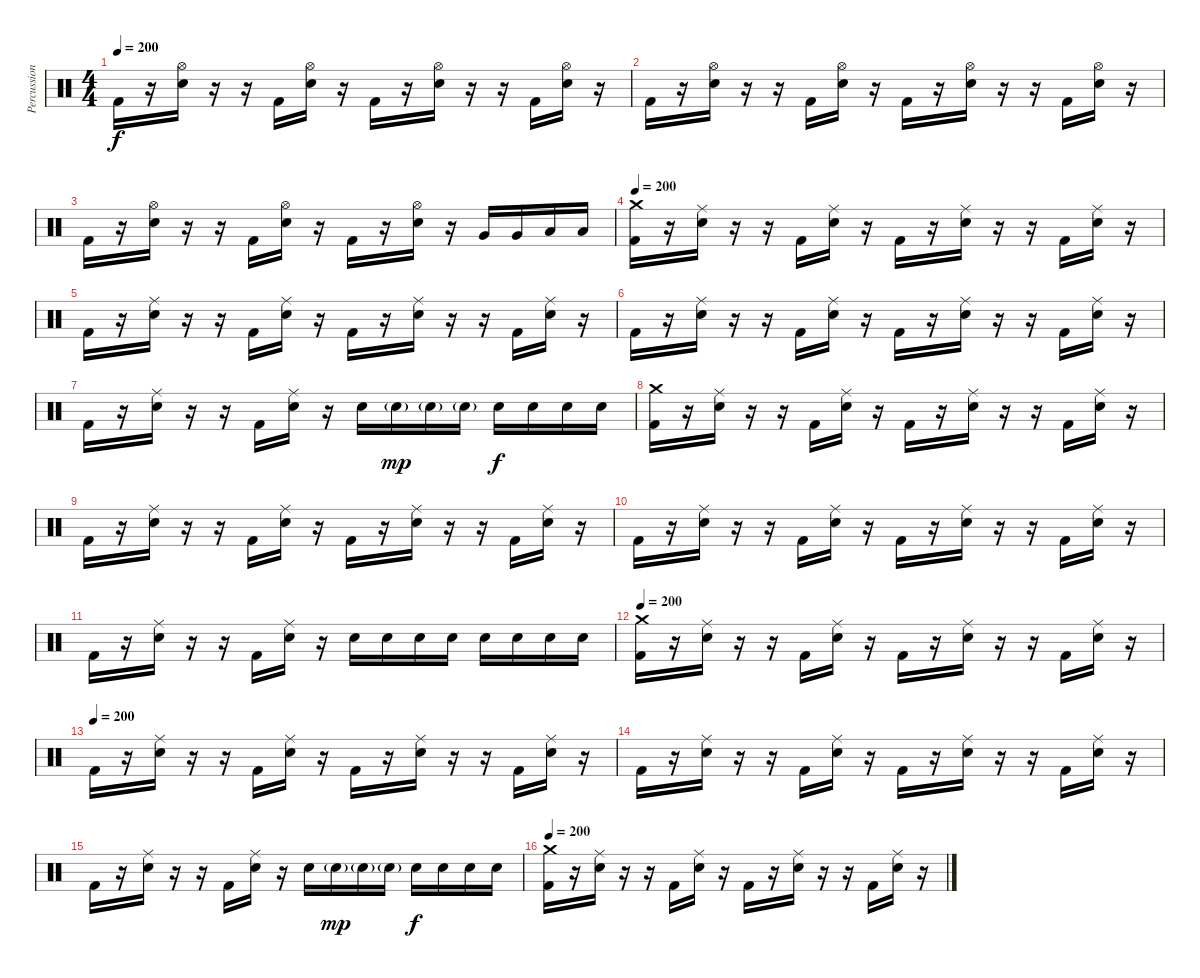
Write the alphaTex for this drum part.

\track ("Percussion" "Percussion") {instrument percussion}
\staff {score}
\articulation defaults
\ts (4 4)
\tempo 200
\clef neutral
\ks c "Kick (hit) 2".16{dy f}
r.16 ("Hi-Hat (open)" "Electric Snare (hit)").16 r.16 r.16 "Kick (hit) 2".16 ("Hi-Hat (open)" "Electric Snare (hit)").16 r.16 "Kick (hit) 2".16 r.16 ("Hi-Hat (open)" "Electric Snare (hit)").16 r.16 r.16 "Kick (hit) 2".16 ("Hi-Hat (open)" "Electric Snare (hit)").16 r.16 |
"Kick (hit) 2".16 r.16 ("Hi-Hat (open)" "Electric Snare (hit)").16 r.16 r.16 "Kick (hit) 2".16 ("Hi-Hat (open)" "Electric Snare (hit)").16 r.16 "Kick (hit) 2".16 r.16 ("Hi-Hat (open)" "Electric Snare (hit)").16 r.16 r.16 "Kick (hit) 2".16 ("Hi-Hat (open)" "Electric Snare (hit)").16 r.16 |
"Kick (hit) 2".16 r.16 ("Hi-Hat (open)" "Electric Snare (hit)").16 r.16 r.16 "Kick (hit) 2".16 ("Hi-Hat (open)" "Electric Snare (hit)").16 r.16 "Kick (hit) 2".16 r.16 ("Hi-Hat (open)" "Electric Snare (hit)").16 r.16 "Very Low Tom (hit)".16 "Very Low Tom (hit)".16 "Low Floor Tom (hit)".16 "Low Floor Tom (hit)".16 |
\tempo 200
("Crash medium (hit)" "Kick (hit) 2").16 r.16 ("Ride (middle)" "Electric Snare (hit)").16 r.16 r.16 "Kick (hit) 2".16 ("Ride (middle)" "Electric Snare (hit)").16 r.16 "Kick (hit) 2".16 r.16 ("Ride (middle)" "Electric Snare (hit)").16 r.16 r.16 "Kick (hit) 2".16 ("Ride (middle)" "Electric Snare (hit)").16 r.16 |
"Kick (hit) 2".16 r.16 ("Ride (middle)" "Electric Snare (hit)").16 r.16 r.16 "Kick (hit) 2".16 ("Ride (middle)" "Electric Snare (hit)").16 r.16 "Kick (hit) 2".16 r.16 ("Ride (middle)" "Electric Snare (hit)").16 r.16 r.16 "Kick (hit) 2".16 ("Ride (middle)" "Electric Snare (hit)").16 r.16 |
"Kick (hit) 2".16 r.16 ("Ride (middle)" "Electric Snare (hit)").16 r.16 r.16 "Kick (hit) 2".16 ("Ride (middle)" "Electric Snare (hit)").16 r.16 "Kick (hit) 2".16 r.16 ("Ride (middle)" "Electric Snare (hit)").16 r.16 r.16 "Kick (hit) 2".16 ("Ride (middle)" "Electric Snare (hit)").16 r.16 |
"Kick (hit) 2".16 r.16 ("Ride (middle)" "Electric Snare (hit)").16 r.16 r.16 "Kick (hit) 2".16 ("Ride (middle)" "Electric Snare (hit)").16 r.16 "Electric Snare (hit)".16 "Electric Snare (hit)"{g}.16{dy mp} "Electric Snare (hit)"{g}.16 "Electric Snare (hit)"{g}.16 "Electric Snare (hit)".16{dy f} "Electric Snare (hit)".16 "Electric Snare (hit)".16 "Electric Snare (hit)".16 |
("Crash medium (hit)" "Kick (hit) 2").16 r.16 ("Ride (middle)" "Electric Snare (hit)").16 r.16 r.16 "Kick (hit) 2".16 ("Ride (middle)" "Electric Snare (hit)").16 r.16 "Kick (hit) 2".16 r.16 ("Ride (middle)" "Electric Snare (hit)").16 r.16 r.16 "Kick (hit) 2".16 ("Ride (middle)" "Electric Snare (hit)").16 r.16 |
"Kick (hit) 2".16 r.16 ("Ride (middle)" "Electric Snare (hit)").16 r.16 r.16 "Kick (hit) 2".16 ("Ride (middle)" "Electric Snare (hit)").16 r.16 "Kick (hit) 2".16 r.16 ("Ride (middle)" "Electric Snare (hit)").16 r.16 r.16 "Kick (hit) 2".16 ("Ride (middle)" "Electric Snare (hit)").16 r.16 |
"Kick (hit) 2".16 r.16 ("Ride (middle)" "Electric Snare (hit)").16 r.16 r.16 "Kick (hit) 2".16 ("Ride (middle)" "Electric Snare (hit)").16 r.16 "Kick (hit) 2".16 r.16 ("Ride (middle)" "Electric Snare (hit)").16 r.16 r.16 "Kick (hit) 2".16 ("Ride (middle)" "Electric Snare (hit)").16 r.16 |
"Kick (hit) 2".16 r.16 ("Ride (middle)" "Electric Snare (hit)").16 r.16 r.16 "Kick (hit) 2".16 ("Ride (middle)" "Electric Snare (hit)").16 r.16 "Electric Snare (hit)".16 "Electric Snare (hit)".16 "Electric Snare (hit)".16 "Electric Snare (hit)".16 "Electric Snare (hit)".16 "Electric Snare (hit)".16 "Electric Snare (hit)".16 "Electric Snare (hit)".16 |
\tempo 200
("Crash medium (hit)" "Kick (hit) 2").16 r.16 ("Ride (middle)" "Electric Snare (hit)").16 r.16 r.16 "Kick (hit) 2".16 ("Ride (middle)" "Electric Snare (hit)").16 r.16 "Kick (hit) 2".16 r.16 ("Ride (middle)" "Electric Snare (hit)").16 r.16 r.16 "Kick (hit) 2".16 ("Ride (middle)" "Electric Snare (hit)").16 r.16 |
\tempo (200)
"Kick (hit) 2".16 r.16 ("Ride (middle)" "Electric Snare (hit)").16 r.16 r.16 "Kick (hit) 2".16 ("Ride (middle)" "Electric Snare (hit)").16 r.16 "Kick (hit) 2".16 r.16 ("Ride (middle)" "Electric Snare (hit)").16 r.16 r.16 "Kick (hit) 2".16 ("Ride (middle)" "Electric Snare (hit)").16 r.16 |
"Kick (hit) 2".16 r.16 ("Ride (middle)" "Electric Snare (hit)").16 r.16 r.16 "Kick (hit) 2".16 ("Ride (middle)" "Electric Snare (hit)").16 r.16 "Kick (hit) 2".16 r.16 ("Ride (middle)" "Electric Snare (hit)").16 r.16 r.16 "Kick (hit) 2".16 ("Ride (middle)" "Electric Snare (hit)").16 r.16 |
"Kick (hit) 2".16 r.16 ("Ride (middle)" "Electric Snare (hit)").16 r.16 r.16 "Kick (hit) 2".16 ("Ride (middle)" "Electric Snare (hit)").16 r.16 "Electric Snare (hit)".16 "Electric Snare (hit)"{g}.16{dy mp} "Electric Snare (hit)"{g}.16 "Electric Snare (hit)"{g}.16 "Electric Snare (hit)".16{dy f} "Electric Snare (hit)".16 "Electric Snare (hit)".16 "Electric Snare (hit)".16 |
\tempo 200
("Crash medium (hit)" "Kick (hit) 2").16 r.16 ("Ride (middle)" "Electric Snare (hit)").16 r.16 r.16 "Kick (hit) 2".16 ("Ride (middle)" "Electric Snare (hit)").16 r.16 "Kick (hit) 2".16 r.16 ("Ride (middle)" "Electric Snare (hit)").16 r.16 r.16 "Kick (hit) 2".16 ("Ride (middle)" "Electric Snare (hit)").16 r.16
